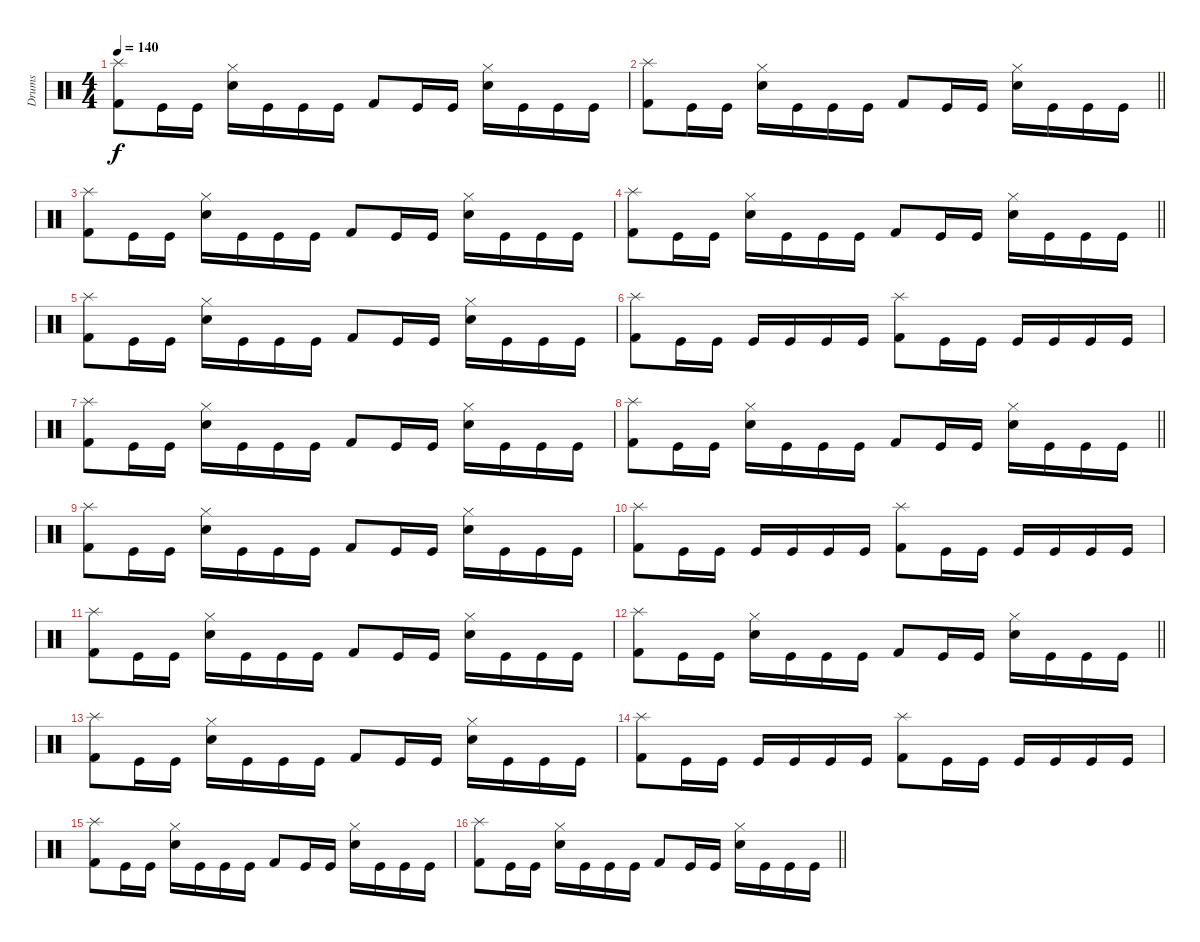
\track ("Drums" "Drums") {instrument percussion}
\staff {score}
\articulation defaults
\ts (4 4)
\tempo 140
\clef neutral
\ks c
("Splash (hit)" "Kick (hit) 2").8{dy f} "Kick (hit)".16 "Kick (hit)".16 ("Snare (hit) 2" "Hi-Hat (closed)").16 "Kick (hit)".16 "Kick (hit)".16 "Kick (hit)".16 "Kick (hit) 2".8 "Kick (hit)".16 "Kick (hit)".16 ("Snare (hit) 2" "Hi-Hat (closed)").16 "Kick (hit)".16 "Kick (hit)".16 "Kick (hit)".16 |
\barLineRight lightlight
("Splash (hit)" "Kick (hit) 2").8 "Kick (hit)".16 "Kick (hit)".16 ("Snare (hit) 2" "Hi-Hat (closed)").16 "Kick (hit)".16 "Kick (hit)".16 "Kick (hit)".16 "Kick (hit) 2".8 "Kick (hit)".16 "Kick (hit)".16 ("Snare (hit) 2" "Hi-Hat (closed)").16 "Kick (hit)".16 "Kick (hit)".16 "Kick (hit)".16 |
("Splash (hit)" "Kick (hit) 2").8 "Kick (hit)".16 "Kick (hit)".16 ("Snare (hit) 2" "Hi-Hat (closed)").16 "Kick (hit)".16 "Kick (hit)".16 "Kick (hit)".16 "Kick (hit) 2".8 "Kick (hit)".16 "Kick (hit)".16 ("Snare (hit) 2" "Hi-Hat (closed)").16 "Kick (hit)".16 "Kick (hit)".16 "Kick (hit)".16 |
\barLineRight lightlight
("Splash (hit)" "Kick (hit) 2").8 "Kick (hit)".16 "Kick (hit)".16 ("Snare (hit) 2" "Hi-Hat (closed)").16 "Kick (hit)".16 "Kick (hit)".16 "Kick (hit)".16 "Kick (hit) 2".8 "Kick (hit)".16 "Kick (hit)".16 ("Snare (hit) 2" "Hi-Hat (closed)").16 "Kick (hit)".16 "Kick (hit)".16 "Kick (hit)".16 |
("Splash (hit)" "Kick (hit) 2").8 "Kick (hit)".16 "Kick (hit)".16 ("Snare (hit) 2" "Hi-Hat (closed)").16 "Kick (hit)".16 "Kick (hit)".16 "Kick (hit)".16 "Kick (hit) 2".8 "Kick (hit)".16 "Kick (hit)".16 ("Snare (hit) 2" "Hi-Hat (closed)").16 "Kick (hit)".16 "Kick (hit)".16 "Kick (hit)".16 |
("Splash (hit)" "Kick (hit) 2").8 "Kick (hit)".16 "Kick (hit)".16 "Kick (hit)".16 "Kick (hit)".16 "Kick (hit)".16 "Kick (hit)".16 ("Splash (hit)" "Kick (hit) 2").8 "Kick (hit)".16 "Kick (hit)".16 "Kick (hit)".16 "Kick (hit)".16 "Kick (hit)".16 "Kick (hit)".16 |
("Splash (hit)" "Kick (hit) 2").8 "Kick (hit)".16 "Kick (hit)".16 ("Snare (hit) 2" "Hi-Hat (closed)").16 "Kick (hit)".16 "Kick (hit)".16 "Kick (hit)".16 "Kick (hit) 2".8 "Kick (hit)".16 "Kick (hit)".16 ("Snare (hit) 2" "Hi-Hat (closed)").16 "Kick (hit)".16 "Kick (hit)".16 "Kick (hit)".16 |
\barLineRight lightlight
("Splash (hit)" "Kick (hit) 2").8 "Kick (hit)".16 "Kick (hit)".16 ("Snare (hit) 2" "Hi-Hat (closed)").16 "Kick (hit)".16 "Kick (hit)".16 "Kick (hit)".16 "Kick (hit) 2".8 "Kick (hit)".16 "Kick (hit)".16 ("Snare (hit) 2" "Hi-Hat (closed)").16 "Kick (hit)".16 "Kick (hit)".16 "Kick (hit)".16 |
("Splash (hit)" "Kick (hit) 2").8 "Kick (hit)".16 "Kick (hit)".16 ("Snare (hit) 2" "Hi-Hat (closed)").16 "Kick (hit)".16 "Kick (hit)".16 "Kick (hit)".16 "Kick (hit) 2".8 "Kick (hit)".16 "Kick (hit)".16 ("Snare (hit) 2" "Hi-Hat (closed)").16 "Kick (hit)".16 "Kick (hit)".16 "Kick (hit)".16 |
("Splash (hit)" "Kick (hit) 2").8 "Kick (hit)".16 "Kick (hit)".16 "Kick (hit)".16 "Kick (hit)".16 "Kick (hit)".16 "Kick (hit)".16 ("Splash (hit)" "Kick (hit) 2").8 "Kick (hit)".16 "Kick (hit)".16 "Kick (hit)".16 "Kick (hit)".16 "Kick (hit)".16 "Kick (hit)".16 |
("Splash (hit)" "Kick (hit) 2").8 "Kick (hit)".16 "Kick (hit)".16 ("Snare (hit) 2" "Hi-Hat (closed)").16 "Kick (hit)".16 "Kick (hit)".16 "Kick (hit)".16 "Kick (hit) 2".8 "Kick (hit)".16 "Kick (hit)".16 ("Snare (hit) 2" "Hi-Hat (closed)").16 "Kick (hit)".16 "Kick (hit)".16 "Kick (hit)".16 |
\barLineRight lightlight
("Splash (hit)" "Kick (hit) 2").8 "Kick (hit)".16 "Kick (hit)".16 ("Snare (hit) 2" "Hi-Hat (closed)").16 "Kick (hit)".16 "Kick (hit)".16 "Kick (hit)".16 "Kick (hit) 2".8 "Kick (hit)".16 "Kick (hit)".16 ("Snare (hit) 2" "Hi-Hat (closed)").16 "Kick (hit)".16 "Kick (hit)".16 "Kick (hit)".16 |
("Splash (hit)" "Kick (hit) 2").8 "Kick (hit)".16 "Kick (hit)".16 ("Snare (hit) 2" "Hi-Hat (closed)").16 "Kick (hit)".16 "Kick (hit)".16 "Kick (hit)".16 "Kick (hit) 2".8 "Kick (hit)".16 "Kick (hit)".16 ("Snare (hit) 2" "Hi-Hat (closed)").16 "Kick (hit)".16 "Kick (hit)".16 "Kick (hit)".16 |
("Splash (hit)" "Kick (hit) 2").8 "Kick (hit)".16 "Kick (hit)".16 "Kick (hit)".16 "Kick (hit)".16 "Kick (hit)".16 "Kick (hit)".16 ("Splash (hit)" "Kick (hit) 2").8 "Kick (hit)".16 "Kick (hit)".16 "Kick (hit)".16 "Kick (hit)".16 "Kick (hit)".16 "Kick (hit)".16 |
("Splash (hit)" "Kick (hit) 2").8 "Kick (hit)".16 "Kick (hit)".16 ("Snare (hit) 2" "Hi-Hat (closed)").16 "Kick (hit)".16 "Kick (hit)".16 "Kick (hit)".16 "Kick (hit) 2".8 "Kick (hit)".16 "Kick (hit)".16 ("Snare (hit) 2" "Hi-Hat (closed)").16 "Kick (hit)".16 "Kick (hit)".16 "Kick (hit)".16 |
\barLineRight lightlight
("Splash (hit)" "Kick (hit) 2").8 "Kick (hit)".16 "Kick (hit)".16 ("Snare (hit) 2" "Hi-Hat (closed)").16 "Kick (hit)".16 "Kick (hit)".16 "Kick (hit)".16 "Kick (hit) 2".8 "Kick (hit)".16 "Kick (hit)".16 ("Snare (hit) 2" "Hi-Hat (closed)").16 "Kick (hit)".16 "Kick (hit)".16 "Kick (hit)".16
